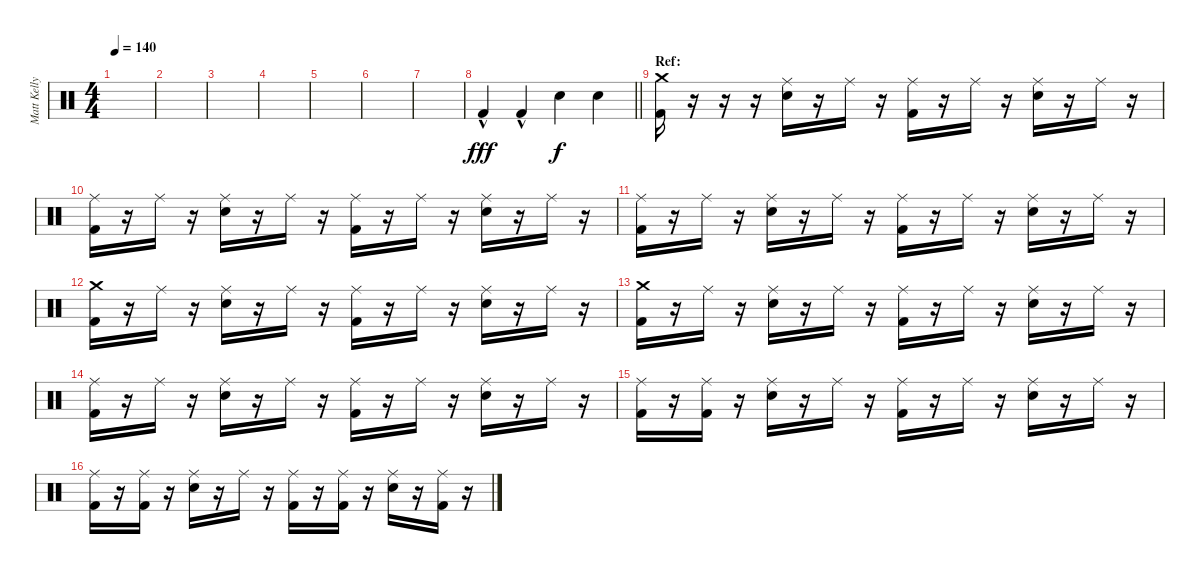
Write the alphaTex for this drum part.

\track ("Matt Kelly" "Matt Kelly") {instrument percussion}
\staff {score}
\articulation defaults
\ts (4 4)
\tempo 140
\clef neutral
\ks c
|
|
|
|
|
|
|
\barLineRight lightlight "Kick (hit) 2"{hac}.4{dy fff} "Kick (hit) 2"{hac}.4 "Electric Snare (hit)".4{dy f} "Electric Snare (hit)".4
|
\section ("" "Ref:")
("Crash medium (hit)" "Kick (hit) 2").16 r.16 r.16 r.16 ("Ride (middle)" "Snare (hit) 2").16 r.16 "Ride (middle)".16 r.16 ("Ride (middle)" "Kick (hit) 2").16 r.16 "Ride (middle)".16 r.16 ("Ride (middle)" "Snare (hit) 2").16 r.16 "Ride (middle)".16 r.16 |
("Ride (middle)" "Kick (hit) 2").16 r.16 "Ride (middle)".16 r.16 ("Ride (middle)" "Snare (hit) 2").16 r.16 "Ride (middle)".16 r.16 ("Ride (middle)" "Kick (hit) 2").16 r.16 "Ride (middle)".16 r.16 ("Ride (middle)" "Snare (hit) 2").16 r.16 "Ride (middle)".16 r.16 |
("Ride (middle)" "Kick (hit) 2").16 r.16 "Ride (middle)".16 r.16 ("Ride (middle)" "Snare (hit) 2").16 r.16 "Ride (middle)".16 r.16 ("Ride (middle)" "Kick (hit) 2").16 r.16 "Ride (middle)".16 r.16 ("Ride (middle)" "Snare (hit) 2").16 r.16 "Ride (middle)".16 r.16 |
("Crash medium (hit)" "Kick (hit) 2").16 r.16 "Ride (middle)".16 r.16 ("Ride (middle)" "Snare (hit) 2").16 r.16 "Ride (middle)".16 r.16 ("Ride (middle)" "Kick (hit) 2").16 r.16 "Ride (middle)".16 r.16 ("Ride (middle)" "Snare (hit) 2").16 r.16 "Ride (middle)".16 r.16 |
("Crash medium (hit)" "Kick (hit) 2").16 r.16 "Ride (middle)".16 r.16 ("Ride (middle)" "Snare (hit) 2").16 r.16 "Ride (middle)".16 r.16 ("Ride (middle)" "Kick (hit) 2").16 r.16 "Ride (middle)".16 r.16 ("Ride (middle)" "Snare (hit) 2").16 r.16 "Ride (middle)".16 r.16 |
("Ride (middle)" "Kick (hit) 2").16 r.16 "Ride (middle)".16 r.16 ("Ride (middle)" "Snare (hit) 2").16 r.16 "Ride (middle)".16 r.16 ("Ride (middle)" "Kick (hit) 2").16 r.16 "Ride (middle)".16 r.16 ("Ride (middle)" "Snare (hit) 2").16 r.16 "Ride (middle)".16 r.16 |
("Ride (middle)" "Kick (hit) 2").16 r.16 ("Ride (middle)" "Kick (hit) 2").16 r.16 ("Ride (middle)" "Snare (hit) 2").16 r.16 "Ride (middle)".16 r.16 ("Ride (middle)" "Kick (hit) 2").16 r.16 "Ride (middle)".16 r.16 ("Ride (middle)" "Snare (hit) 2").16 r.16 "Ride (middle)".16 r.16 |
("Ride (middle)" "Kick (hit) 2").16 r.16 ("Ride (middle)" "Kick (hit) 2").16 r.16 ("Ride (middle)" "Snare (hit) 2").16 r.16 "Ride (middle)".16 r.16 ("Ride (middle)" "Kick (hit) 2").16 r.16 ("Ride (middle)" "Kick (hit) 2").16 r.16 ("Ride (middle)" "Snare (hit) 2").16 r.16 ("Ride (middle)" "Kick (hit) 2").16 r.16
